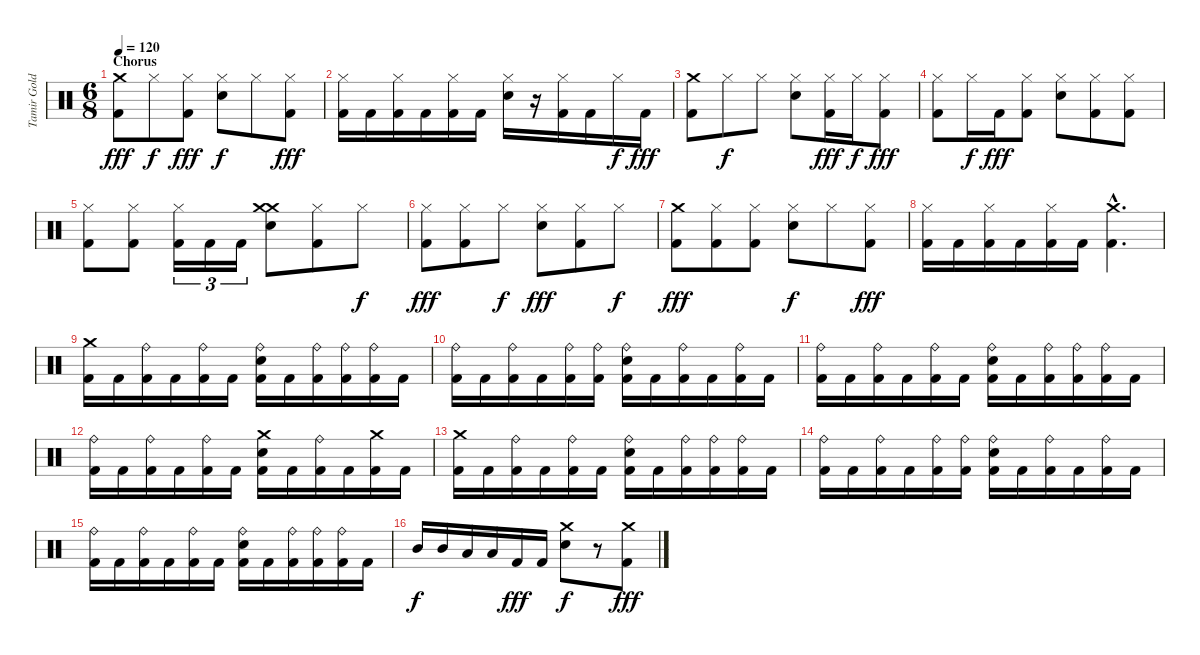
\track ("Tamir Goldberg" "Tamir Gold") {instrument percussion}
\staff {score}
\articulation defaults
\ts (6 8)
\section ("" "Chorus ")
\tempo 120
\clef neutral
\ks c
("Crash medium (hit)" "Kick (hit) 2").8{dy fff} "Hi-Hat (closed)".8{dy f} ("Hi-Hat (closed)" "Kick (hit) 2").8{dy fff} ("Hi-Hat (closed)" "Electric Snare (hit)").8{dy f} "Hi-Hat (closed)".8 ("Hi-Hat (closed)" "Kick (hit) 2").8{dy fff} |
("Hi-Hat (closed)" "Kick (hit) 2").16 "Kick (hit) 2".16 ("Hi-Hat (closed)" "Kick (hit) 2").16 "Kick (hit) 2".16 ("Hi-Hat (closed)" "Kick (hit) 2").16 "Kick (hit) 2".16 ("Hi-Hat (closed)" "Electric Snare (hit)").16 r.16 ("Hi-Hat (closed)" "Kick (hit) 2").16 "Kick (hit) 2".16 "Hi-Hat (closed)".16{dy f} "Kick (hit) 2".16{dy fff} |
("Crash medium (hit)" "Kick (hit) 2").8 "Hi-Hat (closed)".8{dy f} "Hi-Hat (closed)".8 ("Hi-Hat (closed)" "Electric Snare (hit)").8 ("Hi-Hat (closed)" "Kick (hit) 2").16{dy fff} "Hi-Hat (closed)".16{dy f} ("Hi-Hat (closed)" "Kick (hit) 2").8{dy fff} |
("Hi-Hat (closed)" "Kick (hit) 2").8 "Hi-Hat (closed)".16{dy f} "Kick (hit) 2".16{dy fff} ("Hi-Hat (closed)" "Kick (hit) 2").8 ("Hi-Hat (closed)" "Electric Snare (hit)").8 ("Hi-Hat (closed)" "Kick (hit) 2").8 ("Hi-Hat (closed)" "Kick (hit) 2").8 |
("Hi-Hat (closed)" "Kick (hit) 2").8 ("Hi-Hat (closed)" "Kick (hit) 2").8 ("Hi-Hat (closed)" "Kick (hit) 2").16{tu (3 2)} "Kick (hit) 2".16{tu (3 2)} "Kick (hit) 2".16{tu (3 2)} ("Crash medium (hit)" "Crash medium (hit)" "Electric Snare (hit)").8 ("Hi-Hat (closed)" "Kick (hit) 2").8 "Hi-Hat (closed)".8{dy f} |
("Hi-Hat (closed)" "Kick (hit) 2").8{dy fff} ("Hi-Hat (closed)" "Kick (hit) 2").8 "Hi-Hat (closed)".8{dy f} ("Hi-Hat (closed)" "Electric Snare (hit)").8{dy fff} ("Hi-Hat (closed)" "Kick (hit) 2").8 "Hi-Hat (closed)".8{dy f} |
("Crash medium (hit)" "Kick (hit) 2").8{dy fff} ("Hi-Hat (closed)" "Kick (hit) 2").8 ("Hi-Hat (closed)" "Kick (hit) 2").8 ("Hi-Hat (closed)" "Electric Snare (hit)").8{dy f} "Hi-Hat (closed)".8 ("Hi-Hat (closed)" "Kick (hit) 2").8{dy fff} |
("Hi-Hat (closed)" "Kick (hit) 2").16 "Kick (hit) 2".16 ("Hi-Hat (closed)" "Kick (hit) 2").16 "Kick (hit) 2".16 ("Hi-Hat (closed)" "Kick (hit) 2").16 "Kick (hit) 2".16 ("Crash medium (hit)"{hac} "Kick (hit) 2"{hac}).4{d} |
("Crash medium (hit)" "Kick (hit) 2").16 "Kick (hit) 2".16 ("Ride (bell)" "Kick (hit) 2").16 "Kick (hit) 2".16 ("Ride (bell)" "Kick (hit) 2").16 "Kick (hit) 2".16 ("Ride (bell)" "Electric Snare (hit)" "Kick (hit) 2").16 "Kick (hit) 2".16 ("Ride (bell)" "Kick (hit) 2").16 ("Ride (bell)" "Kick (hit) 2").16 ("Ride (bell)" "Kick (hit) 2").16 "Kick (hit) 2".16 |
("Ride (bell)" "Kick (hit) 2").16 "Kick (hit) 2".16 ("Ride (bell)" "Kick (hit) 2").16 "Kick (hit) 2".16 ("Ride (bell)" "Kick (hit) 2").16 ("Ride (bell)" "Kick (hit) 2").16 ("Ride (bell)" "Electric Snare (hit)" "Kick (hit) 2").16 "Kick (hit) 2".16 ("Ride (bell)" "Kick (hit) 2").16 "Kick (hit) 2".16 ("Ride (bell)" "Kick (hit) 2").16 "Kick (hit) 2".16 |
("Ride (bell)" "Kick (hit) 2").16 "Kick (hit) 2".16 ("Ride (bell)" "Kick (hit) 2").16 "Kick (hit) 2".16 ("Ride (bell)" "Kick (hit) 2").16 "Kick (hit) 2".16 ("Ride (bell)" "Electric Snare (hit)" "Kick (hit) 2").16 "Kick (hit) 2".16 ("Ride (bell)" "Kick (hit) 2").16 ("Ride (bell)" "Kick (hit) 2").16 ("Ride (bell)" "Kick (hit) 2").16 "Kick (hit) 2".16 |
("Ride (bell)" "Kick (hit) 2").16 "Kick (hit) 2".16 ("Ride (bell)" "Kick (hit) 2").16 "Kick (hit) 2".16 ("Ride (bell)" "Kick (hit) 2").16 "Kick (hit) 2".16 ("Crash medium (hit)" "Electric Snare (hit)" "Kick (hit) 2").16 "Kick (hit) 2".16 ("Ride (bell)" "Kick (hit) 2").16 "Kick (hit) 2".16 ("Crash medium (hit)" "Kick (hit) 2").16 "Kick (hit) 2".16 |
("Crash medium (hit)" "Kick (hit) 2").16 "Kick (hit) 2".16 ("Ride (bell)" "Kick (hit) 2").16 "Kick (hit) 2".16 ("Ride (bell)" "Kick (hit) 2").16 "Kick (hit) 2".16 ("Ride (bell)" "Electric Snare (hit)" "Kick (hit) 2").16 "Kick (hit) 2".16 ("Ride (bell)" "Kick (hit) 2").16 ("Ride (bell)" "Kick (hit) 2").16 ("Ride (bell)" "Kick (hit) 2").16 "Kick (hit) 2".16 |
("Ride (bell)" "Kick (hit) 2").16 "Kick (hit) 2".16 ("Ride (bell)" "Kick (hit) 2").16 "Kick (hit) 2".16 ("Ride (bell)" "Kick (hit) 2").16 ("Ride (bell)" "Kick (hit) 2").16 ("Ride (bell)" "Electric Snare (hit)" "Kick (hit) 2").16 "Kick (hit) 2".16 ("Ride (bell)" "Kick (hit) 2").16 "Kick (hit) 2".16 ("Ride (bell)" "Kick (hit) 2").16 "Kick (hit) 2".16 |
("Ride (bell)" "Kick (hit) 2").16 "Kick (hit) 2".16 ("Ride (bell)" "Kick (hit) 2").16 "Kick (hit) 2".16 ("Ride (bell)" "Kick (hit) 2").16 "Kick (hit) 2".16 ("Ride (bell)" "Electric Snare (hit)" "Kick (hit) 2").16 "Kick (hit) 2".16 ("Ride (bell)" "Kick (hit) 2").16 ("Ride (bell)" "Kick (hit) 2").16 ("Ride (bell)" "Kick (hit) 2").16 "Kick (hit) 2".16 |
"Mid Tom (hit)".16{dy f} "Mid Tom (hit)".16 "Low Tom (hit)".16 "Low Tom (hit)".16 "Kick (hit) 2".16{dy fff} "Kick (hit) 2".16 ("Crash medium (hit)" "Electric Snare (hit)").8{dy f} r.8 ("Crash medium (hit)" "Kick (hit) 2").8{dy fff}
